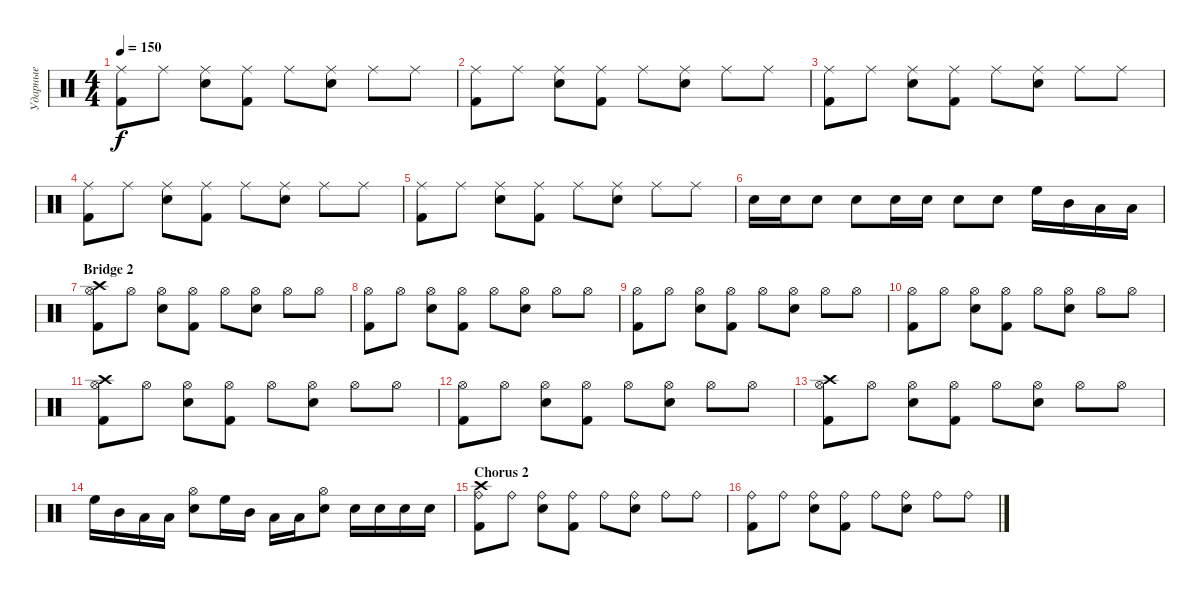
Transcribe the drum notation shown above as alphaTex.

\track ("Ударные" "Ударные") {instrument percussion}
\staff {score}
\articulation defaults
\ts (4 4)
\tempo 150
\clef neutral
\ks c
("Ride (middle)" "Kick (hit) 2").8{dy f} "Ride (middle)".8 ("Ride (middle)" "Snare (hit) 2").8 ("Ride (middle)" "Kick (hit) 2").8 "Ride (middle)".8 ("Ride (middle)" "Snare (hit) 2").8 "Ride (middle)".8 "Ride (middle)".8 |
("Ride (middle)" "Kick (hit) 2").8 "Ride (middle)".8 ("Ride (middle)" "Snare (hit) 2").8 ("Ride (middle)" "Kick (hit) 2").8 "Ride (middle)".8 ("Ride (middle)" "Snare (hit) 2").8 "Ride (middle)".8 "Ride (middle)".8 |
("Ride (middle)" "Kick (hit) 2").8 "Ride (middle)".8 ("Ride (middle)" "Snare (hit) 2").8 ("Ride (middle)" "Kick (hit) 2").8 "Ride (middle)".8 ("Ride (middle)" "Snare (hit) 2").8 "Ride (middle)".8 "Ride (middle)".8 |
("Ride (middle)" "Kick (hit) 2").8 "Ride (middle)".8 ("Ride (middle)" "Snare (hit) 2").8 ("Ride (middle)" "Kick (hit) 2").8 "Ride (middle)".8 ("Ride (middle)" "Snare (hit) 2").8 "Ride (middle)".8 "Ride (middle)".8 |
("Ride (middle)" "Kick (hit) 2").8 "Ride (middle)".8 ("Ride (middle)" "Snare (hit) 2").8 ("Ride (middle)" "Kick (hit) 2").8 "Ride (middle)".8 ("Ride (middle)" "Snare (hit) 2").8 "Ride (middle)".8 "Ride (middle)".8 |
"Snare (hit) 2".16 "Snare (hit) 2".16 "Snare (hit) 2".8 "Snare (hit) 2".8 "Snare (hit) 2".16 "Snare (hit) 2".16 "Snare (hit) 2".8 "Snare (hit) 2".8 "High Floor Tom (hit)".16 "Mid Tom (hit)".16 "Low Tom (hit)".16 "Low Floor Tom (hit)".16 |
\section ("" "Bridge 2")
("Hi-Hat (open)" "Crash high (hit)" "Kick (hit) 2").8 "Hi-Hat (open)".8 ("Hi-Hat (open)" "Snare (hit) 2").8 ("Hi-Hat (open)" "Kick (hit) 2").8 "Hi-Hat (open)".8 ("Hi-Hat (open)" "Snare (hit) 2").8 "Hi-Hat (open)".8 "Hi-Hat (open)".8 |
("Hi-Hat (open)" "Kick (hit) 2").8 "Hi-Hat (open)".8 ("Hi-Hat (open)" "Snare (hit) 2").8 ("Hi-Hat (open)" "Kick (hit) 2").8 "Hi-Hat (open)".8 ("Hi-Hat (open)" "Snare (hit) 2").8 "Hi-Hat (open)".8 "Hi-Hat (open)".8 |
("Hi-Hat (open)" "Kick (hit) 2").8 "Hi-Hat (open)".8 ("Hi-Hat (open)" "Snare (hit) 2").8 ("Hi-Hat (open)" "Kick (hit) 2").8 "Hi-Hat (open)".8 ("Hi-Hat (open)" "Snare (hit) 2").8 "Hi-Hat (open)".8 "Hi-Hat (open)".8 |
("Hi-Hat (open)" "Kick (hit) 2").8 "Hi-Hat (open)".8 ("Hi-Hat (open)" "Snare (hit) 2").8 ("Hi-Hat (open)" "Kick (hit) 2").8 "Hi-Hat (open)".8 ("Hi-Hat (open)" "Snare (hit) 2").8 "Hi-Hat (open)".8 "Hi-Hat (open)".8 |
("Hi-Hat (open)" "Crash high (hit)" "Kick (hit) 2").8 "Hi-Hat (open)".8 ("Hi-Hat (open)" "Snare (hit) 2").8 ("Hi-Hat (open)" "Kick (hit) 2").8 "Hi-Hat (open)".8 ("Hi-Hat (open)" "Snare (hit) 2").8 "Hi-Hat (open)".8 "Hi-Hat (open)".8 |
("Hi-Hat (open)" "Kick (hit) 2").8 "Hi-Hat (open)".8 ("Hi-Hat (open)" "Snare (hit) 2").8 ("Hi-Hat (open)" "Kick (hit) 2").8 "Hi-Hat (open)".8 ("Hi-Hat (open)" "Snare (hit) 2").8 "Hi-Hat (open)".8 "Hi-Hat (open)".8 |
("Hi-Hat (open)" "Crash high (hit)" "Kick (hit) 2").8 "Hi-Hat (open)".8 ("Hi-Hat (open)" "Snare (hit) 2").8 ("Hi-Hat (open)" "Kick (hit) 2").8 "Hi-Hat (open)".8 ("Hi-Hat (open)" "Snare (hit) 2").8 "Hi-Hat (open)".8 "Hi-Hat (open)".8 |
"High Floor Tom (hit)".16 "Mid Tom (hit)".16 "Low Tom (hit)".16 "Low Floor Tom (hit)".16 ("Hi-Hat (open)" "Snare (hit) 2").8 "High Floor Tom (hit)".16 "Mid Tom (hit)".16 "Low Tom (hit)".16 "Low Floor Tom (hit)".16 ("Hi-Hat (open)" "Snare (hit) 2").8 "Snare (hit) 2".16 "Snare (hit) 2".16 "Snare (hit) 2".16 "Snare (hit) 2".16 |
\section ("" "Chorus 2")
("Ride (bell)" "Crash high (hit)" "Kick (hit) 2").8 "Ride (bell)".8 ("Ride (bell)" "Snare (hit) 2").8 ("Ride (bell)" "Kick (hit) 2").8 "Ride (bell)".8 ("Ride (bell)" "Snare (hit) 2").8 "Ride (bell)".8 "Ride (bell)".8 |
("Ride (bell)" "Kick (hit) 2").8 "Ride (bell)".8 ("Ride (bell)" "Snare (hit) 2").8 ("Ride (bell)" "Kick (hit) 2").8 "Ride (bell)".8 ("Ride (bell)" "Snare (hit) 2").8 "Ride (bell)".8 "Ride (bell)".8
